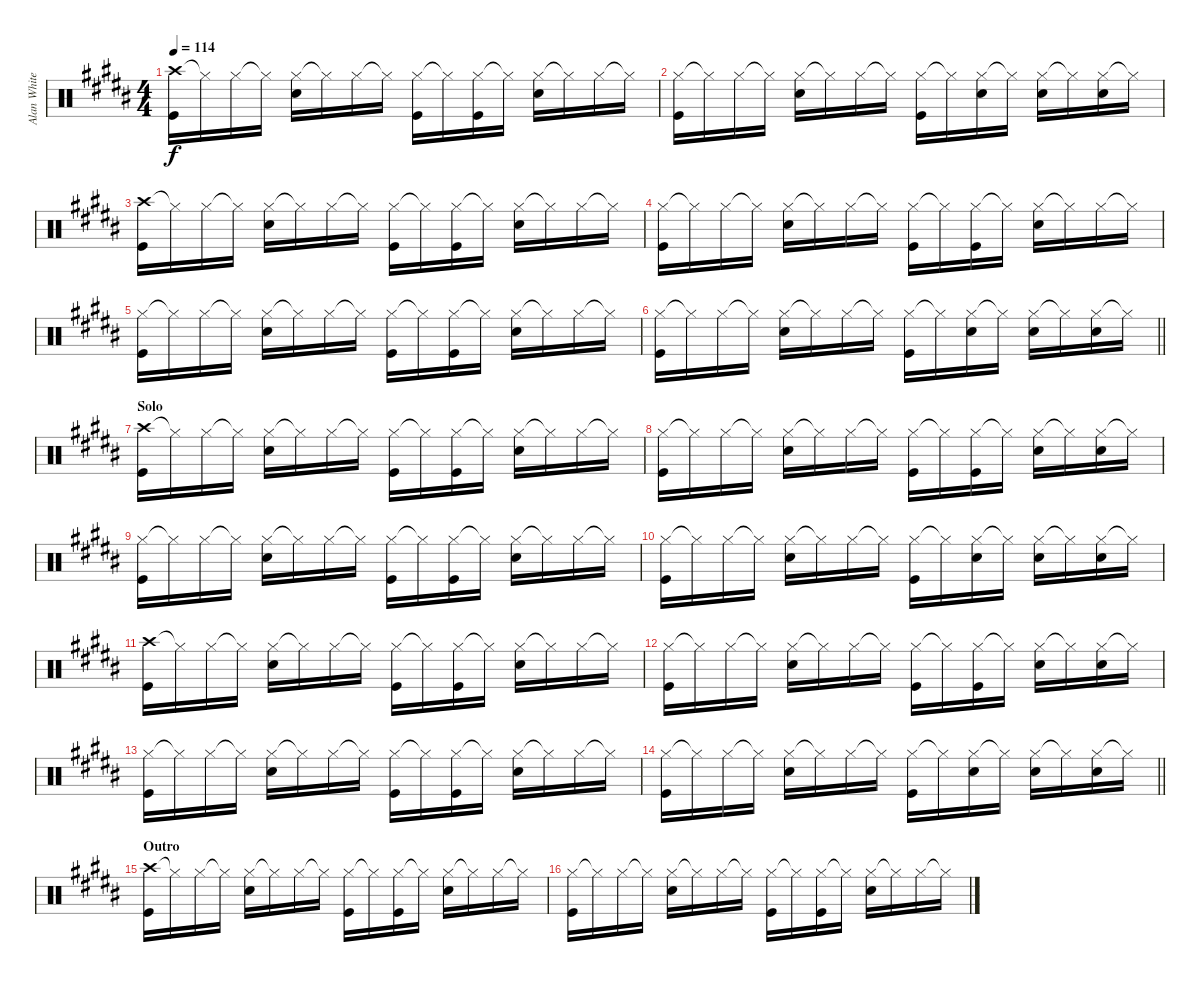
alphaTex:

\track ("Alan White" "Alan White") {instrument percussion}
\staff {score}
\articulation defaults
\ts (4 4)
\tempo 114
\clef neutral
\ks b
("Crash high (hit)" "Kick (hit)").16{dy f} "Hi-Hat (closed)"{t}.16 "Hi-Hat (closed)".16 "Hi-Hat (closed)"{t}.16 ("Hi-Hat (closed)" "Snare (hit) 2").16 "Hi-Hat (closed)"{t}.16 "Hi-Hat (closed)".16 "Hi-Hat (closed)"{t}.16 ("Hi-Hat (closed)" "Kick (hit)").16 "Hi-Hat (closed)"{t}.16 ("Hi-Hat (closed)" "Kick (hit)").16 "Hi-Hat (closed)"{t}.16 ("Hi-Hat (closed)" "Snare (hit) 2").16 "Hi-Hat (closed)"{t}.16 "Hi-Hat (closed)".16 "Hi-Hat (closed)"{t}.16 |
("Hi-Hat (closed)" "Kick (hit)").16 "Hi-Hat (closed)"{t}.16 "Hi-Hat (closed)".16 "Hi-Hat (closed)"{t}.16 ("Hi-Hat (closed)" "Snare (hit) 2").16 "Hi-Hat (closed)"{t}.16 "Hi-Hat (closed)".16 "Hi-Hat (closed)"{t}.16 ("Hi-Hat (closed)" "Kick (hit)").16 "Hi-Hat (closed)"{t}.16 ("Hi-Hat (closed)" "Snare (hit) 2").16 "Hi-Hat (closed)"{t}.16 ("Hi-Hat (closed)" "Snare (hit) 2").16 "Hi-Hat (closed)"{t}.16 ("Hi-Hat (closed)" "Snare (hit) 2").16 "Hi-Hat (closed)"{t}.16 |
("Crash high (hit)" "Kick (hit)").16 "Hi-Hat (closed)"{t}.16 "Hi-Hat (closed)".16 "Hi-Hat (closed)"{t}.16 ("Hi-Hat (closed)" "Snare (hit) 2").16 "Hi-Hat (closed)"{t}.16 "Hi-Hat (closed)".16 "Hi-Hat (closed)"{t}.16 ("Hi-Hat (closed)" "Kick (hit)").16 "Hi-Hat (closed)"{t}.16 ("Hi-Hat (closed)" "Kick (hit)").16 "Hi-Hat (closed)"{t}.16 ("Hi-Hat (closed)" "Snare (hit) 2").16 "Hi-Hat (closed)"{t}.16 "Hi-Hat (closed)".16 "Hi-Hat (closed)"{t}.16 |
("Hi-Hat (closed)" "Kick (hit)").16 "Hi-Hat (closed)"{t}.16 "Hi-Hat (closed)".16 "Hi-Hat (closed)"{t}.16 ("Hi-Hat (closed)" "Snare (hit) 2").16 "Hi-Hat (closed)"{t}.16 "Hi-Hat (closed)".16 "Hi-Hat (closed)"{t}.16 ("Hi-Hat (closed)" "Kick (hit)").16 "Hi-Hat (closed)"{t}.16 ("Hi-Hat (closed)" "Kick (hit)").16 "Hi-Hat (closed)"{t}.16 ("Hi-Hat (closed)" "Snare (hit) 2").16 "Hi-Hat (closed)"{t}.16 "Hi-Hat (closed)".16 "Hi-Hat (closed)"{t}.16 |
("Hi-Hat (closed)" "Kick (hit)").16 "Hi-Hat (closed)"{t}.16 "Hi-Hat (closed)".16 "Hi-Hat (closed)"{t}.16 ("Hi-Hat (closed)" "Snare (hit) 2").16 "Hi-Hat (closed)"{t}.16 "Hi-Hat (closed)".16 "Hi-Hat (closed)"{t}.16 ("Hi-Hat (closed)" "Kick (hit)").16 "Hi-Hat (closed)"{t}.16 ("Hi-Hat (closed)" "Kick (hit)").16 "Hi-Hat (closed)"{t}.16 ("Hi-Hat (closed)" "Snare (hit) 2").16 "Hi-Hat (closed)"{t}.16 "Hi-Hat (closed)".16 "Hi-Hat (closed)"{t}.16 |
\barLineRight lightlight
("Hi-Hat (closed)" "Kick (hit)").16 "Hi-Hat (closed)"{t}.16 "Hi-Hat (closed)".16 "Hi-Hat (closed)"{t}.16 ("Hi-Hat (closed)" "Snare (hit) 2").16 "Hi-Hat (closed)"{t}.16 "Hi-Hat (closed)".16 "Hi-Hat (closed)"{t}.16 ("Hi-Hat (closed)" "Kick (hit)").16 "Hi-Hat (closed)"{t}.16 ("Hi-Hat (closed)" "Snare (hit) 2").16 "Hi-Hat (closed)"{t}.16 ("Hi-Hat (closed)" "Snare (hit) 2").16 "Hi-Hat (closed)"{t}.16 ("Hi-Hat (closed)" "Snare (hit) 2").16 "Hi-Hat (closed)"{t}.16 |
\section ("" "Solo")
("Crash high (hit)" "Kick (hit)").16 "Hi-Hat (closed)"{t}.16 "Hi-Hat (closed)".16 "Hi-Hat (closed)"{t}.16 ("Hi-Hat (closed)" "Snare (hit) 2").16 "Hi-Hat (closed)"{t}.16 "Hi-Hat (closed)".16 "Hi-Hat (closed)"{t}.16 ("Hi-Hat (closed)" "Kick (hit)").16 "Hi-Hat (closed)"{t}.16 ("Hi-Hat (closed)" "Kick (hit)").16 "Hi-Hat (closed)"{t}.16 ("Hi-Hat (closed)" "Snare (hit) 2").16 "Hi-Hat (closed)"{t}.16 "Hi-Hat (closed)".16 "Hi-Hat (closed)"{t}.16 |
("Hi-Hat (closed)" "Kick (hit)").16 "Hi-Hat (closed)"{t}.16 "Hi-Hat (closed)".16 "Hi-Hat (closed)"{t}.16 ("Hi-Hat (closed)" "Snare (hit) 2").16 "Hi-Hat (closed)"{t}.16 "Hi-Hat (closed)".16 "Hi-Hat (closed)"{t}.16 ("Hi-Hat (closed)" "Kick (hit)").16 "Hi-Hat (closed)"{t}.16 ("Hi-Hat (closed)" "Kick (hit)").16 "Hi-Hat (closed)"{t}.16 ("Hi-Hat (closed)" "Snare (hit) 2").16 "Hi-Hat (closed)"{t}.16 ("Hi-Hat (closed)" "Snare (hit) 2").16 "Hi-Hat (closed)"{t}.16 |
("Hi-Hat (closed)" "Kick (hit)").16 "Hi-Hat (closed)"{t}.16 "Hi-Hat (closed)".16 "Hi-Hat (closed)"{t}.16 ("Hi-Hat (closed)" "Snare (hit) 2").16 "Hi-Hat (closed)"{t}.16 "Hi-Hat (closed)".16 "Hi-Hat (closed)"{t}.16 ("Hi-Hat (closed)" "Kick (hit)").16 "Hi-Hat (closed)"{t}.16 ("Hi-Hat (closed)" "Kick (hit)").16 "Hi-Hat (closed)"{t}.16 ("Hi-Hat (closed)" "Snare (hit) 2").16 "Hi-Hat (closed)"{t}.16 "Hi-Hat (closed)".16 "Hi-Hat (closed)"{t}.16 |
("Hi-Hat (closed)" "Kick (hit)").16 "Hi-Hat (closed)"{t}.16 "Hi-Hat (closed)".16 "Hi-Hat (closed)"{t}.16 ("Hi-Hat (closed)" "Snare (hit) 2").16 "Hi-Hat (closed)"{t}.16 "Hi-Hat (closed)".16 "Hi-Hat (closed)"{t}.16 ("Hi-Hat (closed)" "Kick (hit)").16 "Hi-Hat (closed)"{t}.16 ("Hi-Hat (closed)" "Snare (hit) 2").16 "Hi-Hat (closed)"{t}.16 ("Hi-Hat (closed)" "Snare (hit) 2").16 "Hi-Hat (closed)"{t}.16 ("Hi-Hat (closed)" "Snare (hit) 2").16 "Hi-Hat (closed)"{t}.16 |
("Crash high (hit)" "Kick (hit)").16 "Hi-Hat (closed)"{t}.16 "Hi-Hat (closed)".16 "Hi-Hat (closed)"{t}.16 ("Hi-Hat (closed)" "Snare (hit) 2").16 "Hi-Hat (closed)"{t}.16 "Hi-Hat (closed)".16 "Hi-Hat (closed)"{t}.16 ("Hi-Hat (closed)" "Kick (hit)").16 "Hi-Hat (closed)"{t}.16 ("Hi-Hat (closed)" "Kick (hit)").16 "Hi-Hat (closed)"{t}.16 ("Hi-Hat (closed)" "Snare (hit) 2").16 "Hi-Hat (closed)"{t}.16 "Hi-Hat (closed)".16 "Hi-Hat (closed)"{t}.16 |
("Hi-Hat (closed)" "Kick (hit)").16 "Hi-Hat (closed)"{t}.16 "Hi-Hat (closed)".16 "Hi-Hat (closed)"{t}.16 ("Hi-Hat (closed)" "Snare (hit) 2").16 "Hi-Hat (closed)"{t}.16 "Hi-Hat (closed)".16 "Hi-Hat (closed)"{t}.16 ("Hi-Hat (closed)" "Kick (hit)").16 "Hi-Hat (closed)"{t}.16 ("Hi-Hat (closed)" "Kick (hit)").16 "Hi-Hat (closed)"{t}.16 ("Hi-Hat (closed)" "Snare (hit) 2").16 "Hi-Hat (closed)"{t}.16 ("Hi-Hat (closed)" "Snare (hit) 2").16 "Hi-Hat (closed)"{t}.16 |
("Hi-Hat (closed)" "Kick (hit)").16 "Hi-Hat (closed)"{t}.16 "Hi-Hat (closed)".16 "Hi-Hat (closed)"{t}.16 ("Hi-Hat (closed)" "Snare (hit) 2").16 "Hi-Hat (closed)"{t}.16 "Hi-Hat (closed)".16 "Hi-Hat (closed)"{t}.16 ("Hi-Hat (closed)" "Kick (hit)").16 "Hi-Hat (closed)"{t}.16 ("Hi-Hat (closed)" "Kick (hit)").16 "Hi-Hat (closed)"{t}.16 ("Hi-Hat (closed)" "Snare (hit) 2").16 "Hi-Hat (closed)"{t}.16 "Hi-Hat (closed)".16 "Hi-Hat (closed)"{t}.16 |
\barLineRight lightlight
("Hi-Hat (closed)" "Kick (hit)").16 "Hi-Hat (closed)"{t}.16 "Hi-Hat (closed)".16 "Hi-Hat (closed)"{t}.16 ("Hi-Hat (closed)" "Snare (hit) 2").16 "Hi-Hat (closed)"{t}.16 "Hi-Hat (closed)".16 "Hi-Hat (closed)"{t}.16 ("Hi-Hat (closed)" "Kick (hit)").16 "Hi-Hat (closed)"{t}.16 ("Hi-Hat (closed)" "Snare (hit) 2").16 "Hi-Hat (closed)"{t}.16 ("Hi-Hat (closed)" "Snare (hit) 2").16 "Hi-Hat (closed)"{t}.16 ("Hi-Hat (closed)" "Snare (hit) 2").16 "Hi-Hat (closed)"{t}.16 |
\section ("" "Outro")
("Crash high (hit)" "Kick (hit)").16 "Hi-Hat (closed)"{t}.16 "Hi-Hat (closed)".16 "Hi-Hat (closed)"{t}.16 ("Hi-Hat (closed)" "Snare (hit) 2").16 "Hi-Hat (closed)"{t}.16 "Hi-Hat (closed)".16 "Hi-Hat (closed)"{t}.16 ("Hi-Hat (closed)" "Kick (hit)").16 "Hi-Hat (closed)"{t}.16 ("Hi-Hat (closed)" "Kick (hit)").16 "Hi-Hat (closed)"{t}.16 ("Hi-Hat (closed)" "Snare (hit) 2").16 "Hi-Hat (closed)"{t}.16 "Hi-Hat (closed)".16 "Hi-Hat (closed)"{t}.16 |
("Hi-Hat (closed)" "Kick (hit)").16 "Hi-Hat (closed)"{t}.16 "Hi-Hat (closed)".16 "Hi-Hat (closed)"{t}.16 ("Hi-Hat (closed)" "Snare (hit) 2").16 "Hi-Hat (closed)"{t}.16 "Hi-Hat (closed)".16 "Hi-Hat (closed)"{t}.16 ("Hi-Hat (closed)" "Kick (hit)").16 "Hi-Hat (closed)"{t}.16 ("Hi-Hat (closed)" "Kick (hit)").16 "Hi-Hat (closed)"{t}.16 ("Hi-Hat (closed)" "Snare (hit) 2").16 "Hi-Hat (closed)"{t}.16 "Hi-Hat (closed)".16 "Hi-Hat (closed)"{t}.16
